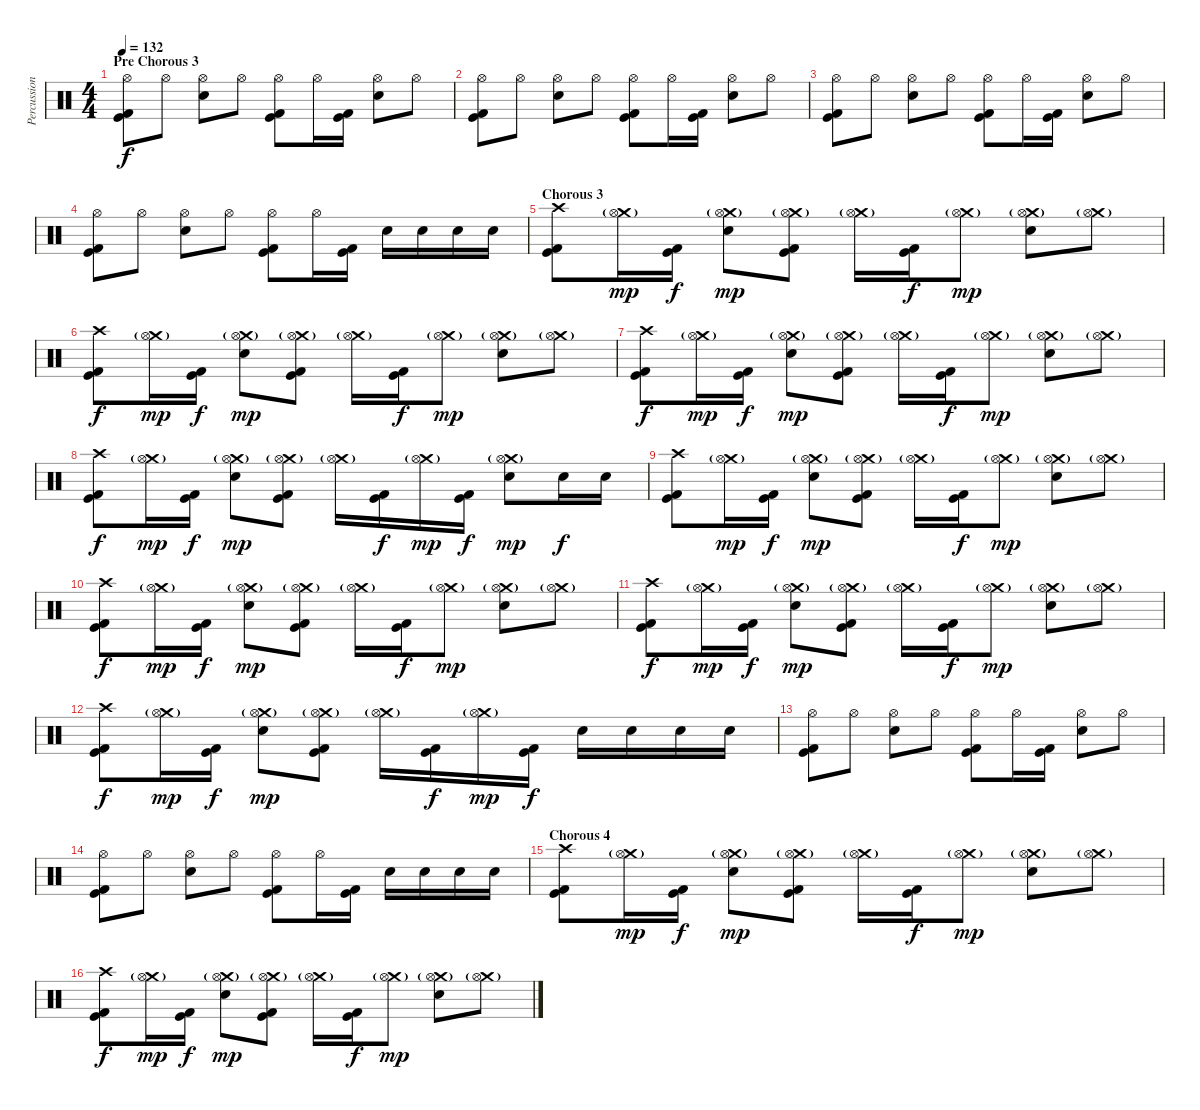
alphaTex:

\track ("Percussion" "Percussion") {instrument percussion}
\staff {score}
\articulation defaults
\ts (4 4)
\section ("" "Pre Chorous 3")
\tempo 132
\clef neutral
\ks c
("Hi-Hat (open)" "Kick (hit)" "Kick (hit) 2").8{dy f} "Hi-Hat (open)".8 ("Hi-Hat (open)" "Electric Snare (hit)").8 "Hi-Hat (open)".8 ("Hi-Hat (open)" "Kick (hit)" "Kick (hit) 2").8 "Hi-Hat (open)".16 ("Kick (hit)" "Kick (hit) 2").16 ("Hi-Hat (open)" "Electric Snare (hit)").8 "Hi-Hat (open)".8 |
("Hi-Hat (open)" "Kick (hit)" "Kick (hit) 2").8 "Hi-Hat (open)".8 ("Hi-Hat (open)" "Electric Snare (hit)").8 "Hi-Hat (open)".8 ("Hi-Hat (open)" "Kick (hit)" "Kick (hit) 2").8 "Hi-Hat (open)".16 ("Kick (hit)" "Kick (hit) 2").16 ("Hi-Hat (open)" "Electric Snare (hit)").8 "Hi-Hat (open)".8 |
("Hi-Hat (open)" "Kick (hit)" "Kick (hit) 2").8 "Hi-Hat (open)".8 ("Hi-Hat (open)" "Electric Snare (hit)").8 "Hi-Hat (open)".8 ("Hi-Hat (open)" "Kick (hit)" "Kick (hit) 2").8 "Hi-Hat (open)".16 ("Kick (hit)" "Kick (hit) 2").16 ("Hi-Hat (open)" "Electric Snare (hit)").8 "Hi-Hat (open)".8 |
("Hi-Hat (open)" "Kick (hit)" "Kick (hit) 2").8 "Hi-Hat (open)".8 ("Hi-Hat (open)" "Electric Snare (hit)").8 "Hi-Hat (open)".8 ("Hi-Hat (open)" "Kick (hit)" "Kick (hit) 2").8 "Hi-Hat (open)".16 ("Kick (hit)" "Kick (hit) 2").16 "Electric Snare (hit)".16 "Electric Snare (hit)".16 "Electric Snare (hit)".16 "Electric Snare (hit)".16 |
\section ("" "Chorous 3")
("Crash high (hit)" "Kick (hit)" "Kick (hit) 2").8 ("Crash medium (hit)"{g} "Hi-Hat (open)").16{dy mp} ("Kick (hit)" "Kick (hit) 2").16{dy f} ("Crash medium (hit)"{g} "Hi-Hat (open)" "Electric Snare (hit)").8{dy mp} ("Crash medium (hit)"{g} "Hi-Hat (open)" "Kick (hit)" "Kick (hit) 2").8 ("Crash medium (hit)"{g} "Hi-Hat (open)").16 ("Kick (hit)" "Kick (hit) 2").16{dy f} ("Crash medium (hit)"{g} "Hi-Hat (open)").8{dy mp} ("Crash medium (hit)"{g} "Hi-Hat (open)" "Electric Snare (hit)").8 ("Crash medium (hit)"{g} "Hi-Hat (open)").8 |
("Crash high (hit)" "Kick (hit)" "Kick (hit) 2").8{dy f} ("Crash medium (hit)"{g} "Hi-Hat (open)").16{dy mp} ("Kick (hit)" "Kick (hit) 2").16{dy f} ("Crash medium (hit)"{g} "Hi-Hat (open)" "Electric Snare (hit)").8{dy mp} ("Crash medium (hit)"{g} "Hi-Hat (open)" "Kick (hit)" "Kick (hit) 2").8 ("Crash medium (hit)"{g} "Hi-Hat (open)").16 ("Kick (hit)" "Kick (hit) 2").16{dy f} ("Crash medium (hit)"{g} "Hi-Hat (open)").8{dy mp} ("Crash medium (hit)"{g} "Hi-Hat (open)" "Electric Snare (hit)").8 ("Crash medium (hit)"{g} "Hi-Hat (open)").8 |
("Crash high (hit)" "Kick (hit)" "Kick (hit) 2").8{dy f} ("Crash medium (hit)"{g} "Hi-Hat (open)").16{dy mp} ("Kick (hit)" "Kick (hit) 2").16{dy f} ("Crash medium (hit)"{g} "Hi-Hat (open)" "Electric Snare (hit)").8{dy mp} ("Crash medium (hit)"{g} "Hi-Hat (open)" "Kick (hit)" "Kick (hit) 2").8 ("Crash medium (hit)"{g} "Hi-Hat (open)").16 ("Kick (hit)" "Kick (hit) 2").16{dy f} ("Crash medium (hit)"{g} "Hi-Hat (open)").8{dy mp} ("Crash medium (hit)"{g} "Hi-Hat (open)" "Electric Snare (hit)").8 ("Crash medium (hit)"{g} "Hi-Hat (open)").8 |
("Crash high (hit)" "Kick (hit)" "Kick (hit) 2").8{dy f} ("Crash medium (hit)"{g} "Hi-Hat (open)").16{dy mp} ("Kick (hit)" "Kick (hit) 2").16{dy f} ("Crash medium (hit)"{g} "Hi-Hat (open)" "Electric Snare (hit)").8{dy mp} ("Crash medium (hit)"{g} "Hi-Hat (open)" "Kick (hit)" "Kick (hit) 2").8 ("Crash medium (hit)"{g} "Hi-Hat (open)").16 ("Kick (hit)" "Kick (hit) 2").16{dy f} ("Crash medium (hit)"{g} "Hi-Hat (open)").16{dy mp} ("Kick (hit)" "Kick (hit) 2").16{dy f} ("Crash medium (hit)"{g} "Hi-Hat (open)" "Electric Snare (hit)").8{dy mp} "Electric Snare (hit)".16{dy f} "Electric Snare (hit)".16 |
("Crash high (hit)" "Kick (hit)" "Kick (hit) 2").8 ("Crash medium (hit)"{g} "Hi-Hat (open)").16{dy mp} ("Kick (hit)" "Kick (hit) 2").16{dy f} ("Crash medium (hit)"{g} "Hi-Hat (open)" "Electric Snare (hit)").8{dy mp} ("Crash medium (hit)"{g} "Hi-Hat (open)" "Kick (hit)" "Kick (hit) 2").8 ("Crash medium (hit)"{g} "Hi-Hat (open)").16 ("Kick (hit)" "Kick (hit) 2").16{dy f} ("Crash medium (hit)"{g} "Hi-Hat (open)").8{dy mp} ("Crash medium (hit)"{g} "Hi-Hat (open)" "Electric Snare (hit)").8 ("Crash medium (hit)"{g} "Hi-Hat (open)").8 |
("Crash high (hit)" "Kick (hit)" "Kick (hit) 2").8{dy f} ("Crash medium (hit)"{g} "Hi-Hat (open)").16{dy mp} ("Kick (hit)" "Kick (hit) 2").16{dy f} ("Crash medium (hit)"{g} "Hi-Hat (open)" "Electric Snare (hit)").8{dy mp} ("Crash medium (hit)"{g} "Hi-Hat (open)" "Kick (hit)" "Kick (hit) 2").8 ("Crash medium (hit)"{g} "Hi-Hat (open)").16 ("Kick (hit)" "Kick (hit) 2").16{dy f} ("Crash medium (hit)"{g} "Hi-Hat (open)").8{dy mp} ("Crash medium (hit)"{g} "Hi-Hat (open)" "Electric Snare (hit)").8 ("Crash medium (hit)"{g} "Hi-Hat (open)").8 |
("Crash high (hit)" "Kick (hit)" "Kick (hit) 2").8{dy f} ("Crash medium (hit)"{g} "Hi-Hat (open)").16{dy mp} ("Kick (hit)" "Kick (hit) 2").16{dy f} ("Crash medium (hit)"{g} "Hi-Hat (open)" "Electric Snare (hit)").8{dy mp} ("Crash medium (hit)"{g} "Hi-Hat (open)" "Kick (hit)" "Kick (hit) 2").8 ("Crash medium (hit)"{g} "Hi-Hat (open)").16 ("Kick (hit)" "Kick (hit) 2").16{dy f} ("Crash medium (hit)"{g} "Hi-Hat (open)").8{dy mp} ("Crash medium (hit)"{g} "Hi-Hat (open)" "Electric Snare (hit)").8 ("Crash medium (hit)"{g} "Hi-Hat (open)").8 |
("Crash high (hit)" "Kick (hit)" "Kick (hit) 2").8{dy f} ("Crash medium (hit)"{g} "Hi-Hat (open)").16{dy mp} ("Kick (hit)" "Kick (hit) 2").16{dy f} ("Crash medium (hit)"{g} "Hi-Hat (open)" "Electric Snare (hit)").8{dy mp} ("Crash medium (hit)"{g} "Hi-Hat (open)" "Kick (hit)" "Kick (hit) 2").8 ("Crash medium (hit)"{g} "Hi-Hat (open)").16 ("Kick (hit)" "Kick (hit) 2").16{dy f} ("Crash medium (hit)"{g} "Hi-Hat (open)").16{dy mp} ("Kick (hit)" "Kick (hit) 2").16{dy f} "Electric Snare (hit)".16 "Electric Snare (hit)".16 "Electric Snare (hit)".16 "Electric Snare (hit)".16 |
\section ("" "")
("Hi-Hat (open)" "Kick (hit)" "Kick (hit) 2").8 "Hi-Hat (open)".8 ("Hi-Hat (open)" "Electric Snare (hit)").8 "Hi-Hat (open)".8 ("Hi-Hat (open)" "Kick (hit)" "Kick (hit) 2").8 "Hi-Hat (open)".16 ("Kick (hit)" "Kick (hit) 2").16 ("Hi-Hat (open)" "Electric Snare (hit)").8 "Hi-Hat (open)".8 |
("Hi-Hat (open)" "Kick (hit)" "Kick (hit) 2").8 "Hi-Hat (open)".8 ("Hi-Hat (open)" "Electric Snare (hit)").8 "Hi-Hat (open)".8 ("Hi-Hat (open)" "Kick (hit)" "Kick (hit) 2").8 "Hi-Hat (open)".16 ("Kick (hit)" "Kick (hit) 2").16 "Electric Snare (hit)".16 "Electric Snare (hit)".16 "Electric Snare (hit)".16 "Electric Snare (hit)".16 |
\section ("" "Chorous 4")
("Crash high (hit)" "Kick (hit)" "Kick (hit) 2").8 ("Crash medium (hit)"{g} "Hi-Hat (open)").16{dy mp} ("Kick (hit)" "Kick (hit) 2").16{dy f} ("Crash medium (hit)"{g} "Hi-Hat (open)" "Electric Snare (hit)").8{dy mp} ("Crash medium (hit)"{g} "Hi-Hat (open)" "Kick (hit)" "Kick (hit) 2").8 ("Crash medium (hit)"{g} "Hi-Hat (open)").16 ("Kick (hit)" "Kick (hit) 2").16{dy f} ("Crash medium (hit)"{g} "Hi-Hat (open)").8{dy mp} ("Crash medium (hit)"{g} "Hi-Hat (open)" "Electric Snare (hit)").8 ("Crash medium (hit)"{g} "Hi-Hat (open)").8 |
("Crash high (hit)" "Kick (hit)" "Kick (hit) 2").8{dy f} ("Crash medium (hit)"{g} "Hi-Hat (open)").16{dy mp} ("Kick (hit)" "Kick (hit) 2").16{dy f} ("Crash medium (hit)"{g} "Hi-Hat (open)" "Electric Snare (hit)").8{dy mp} ("Crash medium (hit)"{g} "Hi-Hat (open)" "Kick (hit)" "Kick (hit) 2").8 ("Crash medium (hit)"{g} "Hi-Hat (open)").16 ("Kick (hit)" "Kick (hit) 2").16{dy f} ("Crash medium (hit)"{g} "Hi-Hat (open)").8{dy mp} ("Crash medium (hit)"{g} "Hi-Hat (open)" "Electric Snare (hit)").8 ("Crash medium (hit)"{g} "Hi-Hat (open)").8
